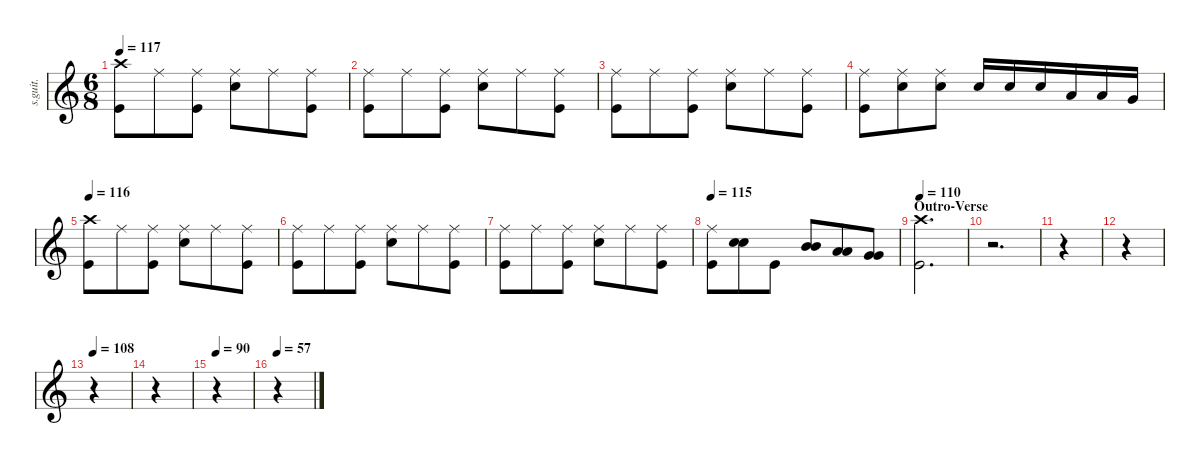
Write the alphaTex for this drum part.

\defaultSystemsLayout 4
\hideDynamics
\bracketExtendMode nobrackets
\track ("John Dolmayan - Drums" "s.guit.") {instrument percussion}
\staff {score}
\articulation defaults
\ts (6 8)
\tempo 117
\clef g2
\ks c
("Crash high (hit)" "Kick (hit)").8{lyrics (0 "") lyrics (1 "") lyrics (2 "") lyrics (3 "") lyrics (4 "") dy f} "Ride (middle)".8{lyrics (0 "") lyrics (1 "") lyrics (2 "") lyrics (3 "") lyrics (4 "")} ("Ride (middle)" "Kick (hit)").8{lyrics (0 "") lyrics (1 "") lyrics (2 "") lyrics (3 "") lyrics (4 "")} ("Ride (middle)" "Snare (hit) 2").8{lyrics (0 "") lyrics (1 "") lyrics (2 "") lyrics (3 "") lyrics (4 "")} "Ride (middle)".8{lyrics (0 "") lyrics (1 "") lyrics (2 "") lyrics (3 "") lyrics (4 "")} ("Ride (middle)" "Kick (hit)").8{lyrics (0 "") lyrics (1 "") lyrics (2 "") lyrics (3 "") lyrics (4 "")} |
("Ride (middle)" "Kick (hit)").8{lyrics (0 "") lyrics (1 "") lyrics (2 "") lyrics (3 "") lyrics (4 "")} "Ride (middle)".8{lyrics (0 "") lyrics (1 "") lyrics (2 "") lyrics (3 "") lyrics (4 "")} ("Ride (middle)" "Kick (hit)").8{lyrics (0 "") lyrics (1 "") lyrics (2 "") lyrics (3 "") lyrics (4 "")} ("Ride (middle)" "Snare (hit) 2").8{lyrics (0 "") lyrics (1 "") lyrics (2 "") lyrics (3 "") lyrics (4 "")} "Ride (middle)".8{lyrics (0 "") lyrics (1 "") lyrics (2 "") lyrics (3 "") lyrics (4 "")} ("Ride (middle)" "Kick (hit)").8{lyrics (0 "") lyrics (1 "") lyrics (2 "") lyrics (3 "") lyrics (4 "")} |
("Ride (middle)" "Kick (hit)").8{lyrics (0 "") lyrics (1 "") lyrics (2 "") lyrics (3 "") lyrics (4 "")} "Ride (middle)".8{lyrics (0 "") lyrics (1 "") lyrics (2 "") lyrics (3 "") lyrics (4 "")} ("Ride (middle)" "Kick (hit)").8{lyrics (0 "") lyrics (1 "") lyrics (2 "") lyrics (3 "") lyrics (4 "")} ("Ride (middle)" "Snare (hit) 2").8{lyrics (0 "") lyrics (1 "") lyrics (2 "") lyrics (3 "") lyrics (4 "")} "Ride (middle)".8{lyrics (0 "") lyrics (1 "") lyrics (2 "") lyrics (3 "") lyrics (4 "")} ("Ride (middle)" "Kick (hit)").8{lyrics (0 "") lyrics (1 "") lyrics (2 "") lyrics (3 "") lyrics (4 "")} |
("Ride (middle)" "Kick (hit)").8{lyrics (0 "") lyrics (1 "") lyrics (2 "") lyrics (3 "") lyrics (4 "")} ("Ride (middle)" "Snare (hit) 2").8{lyrics (0 "") lyrics (1 "") lyrics (2 "") lyrics (3 "") lyrics (4 "")} ("Ride (middle)" "Snare (hit) 2").8{lyrics (0 "") lyrics (1 "") lyrics (2 "") lyrics (3 "") lyrics (4 "")} "Snare (hit) 2".16{lyrics (0 "") lyrics (1 "") lyrics (2 "") lyrics (3 "") lyrics (4 "")} "Snare (hit) 2".16{lyrics (0 "") lyrics (1 "") lyrics (2 "") lyrics (3 "") lyrics (4 "")} "Snare (hit) 2".16{lyrics (0 "") lyrics (1 "") lyrics (2 "") lyrics (3 "") lyrics (4 "")} "Low Tom (hit)".16{lyrics (0 "") lyrics (1 "") lyrics (2 "") lyrics (3 "") lyrics (4 "")} "Low Tom (hit)".16{lyrics (0 "") lyrics (1 "") lyrics (2 "") lyrics (3 "") lyrics (4 "")} "Very Low Tom (hit)".16{lyrics (0 "") lyrics (1 "") lyrics (2 "") lyrics (3 "") lyrics (4 "")} |
\tempo 116
("Crash high (hit)" "Kick (hit)").8{lyrics (0 "") lyrics (1 "") lyrics (2 "") lyrics (3 "") lyrics (4 "")} "Ride (middle)".8{lyrics (0 "") lyrics (1 "") lyrics (2 "") lyrics (3 "") lyrics (4 "")} ("Ride (middle)" "Kick (hit)").8{lyrics (0 "") lyrics (1 "") lyrics (2 "") lyrics (3 "") lyrics (4 "")} ("Ride (middle)" "Snare (hit) 2").8{lyrics (0 "") lyrics (1 "") lyrics (2 "") lyrics (3 "") lyrics (4 "")} "Ride (middle)".8{lyrics (0 "") lyrics (1 "") lyrics (2 "") lyrics (3 "") lyrics (4 "")} ("Ride (middle)" "Kick (hit)").8{lyrics (0 "") lyrics (1 "") lyrics (2 "") lyrics (3 "") lyrics (4 "")} |
("Ride (middle)" "Kick (hit)").8{lyrics (0 "") lyrics (1 "") lyrics (2 "") lyrics (3 "") lyrics (4 "")} "Ride (middle)".8{lyrics (0 "") lyrics (1 "") lyrics (2 "") lyrics (3 "") lyrics (4 "")} ("Ride (middle)" "Kick (hit)").8{lyrics (0 "") lyrics (1 "") lyrics (2 "") lyrics (3 "") lyrics (4 "")} ("Ride (middle)" "Snare (hit) 2").8{lyrics (0 "") lyrics (1 "") lyrics (2 "") lyrics (3 "") lyrics (4 "")} "Ride (middle)".8{lyrics (0 "") lyrics (1 "") lyrics (2 "") lyrics (3 "") lyrics (4 "")} ("Ride (middle)" "Kick (hit)").8{lyrics (0 "") lyrics (1 "") lyrics (2 "") lyrics (3 "") lyrics (4 "")} |
("Ride (middle)" "Kick (hit)").8{lyrics (0 "") lyrics (1 "") lyrics (2 "") lyrics (3 "") lyrics (4 "")} "Ride (middle)".8{lyrics (0 "") lyrics (1 "") lyrics (2 "") lyrics (3 "") lyrics (4 "")} ("Ride (middle)" "Kick (hit)").8{lyrics (0 "") lyrics (1 "") lyrics (2 "") lyrics (3 "") lyrics (4 "")} ("Ride (middle)" "Snare (hit) 2").8{lyrics (0 "") lyrics (1 "") lyrics (2 "") lyrics (3 "") lyrics (4 "")} "Ride (middle)".8{lyrics (0 "") lyrics (1 "") lyrics (2 "") lyrics (3 "") lyrics (4 "")} ("Ride (middle)" "Kick (hit)").8{lyrics (0 "") lyrics (1 "") lyrics (2 "") lyrics (3 "") lyrics (4 "")} |
\tempo 115
("Ride (middle)" "Kick (hit)").8{lyrics (0 "") lyrics (1 "") lyrics (2 "") lyrics (3 "") lyrics (4 "")} ("Snare (hit) 2" "Snare (hit) 2").8{lyrics (0 "") lyrics (1 "") lyrics (2 "") lyrics (3 "") lyrics (4 "")} "Kick (hit)".8{lyrics (0 "") lyrics (1 "") lyrics (2 "") lyrics (3 "") lyrics (4 "")} ("Mid Tom (hit)" "Mid Tom (hit)").8{lyrics (0 "") lyrics (1 "") lyrics (2 "") lyrics (3 "") lyrics (4 "")} ("Low Tom (hit)" "Low Tom (hit)").8{lyrics (0 "") lyrics (1 "") lyrics (2 "") lyrics (3 "") lyrics (4 "")} ("Very Low Tom (hit)" "Very Low Tom (hit)").8{lyrics (0 "") lyrics (1 "") lyrics (2 "") lyrics (3 "") lyrics (4 "")} |
\section ("" "Outro-Verse")
\tempo 110
("Crash high (hit)" "Kick (hit)").2{d lyrics (0 "") lyrics (1 "") lyrics (2 "") lyrics (3 "") lyrics (4 "")} |
r.2{d} |
r.4 |
r.4 |
\tempo 108
r.4 |
r.4 |
\tempo 90
r.4 |
\tempo 57
r.4
